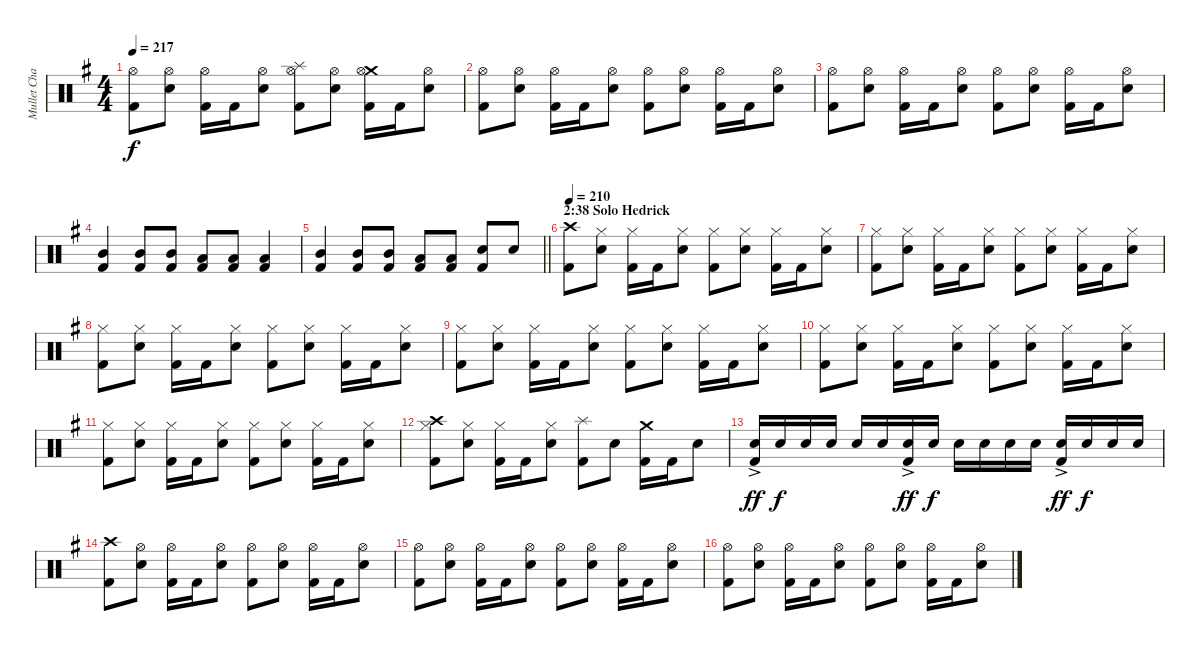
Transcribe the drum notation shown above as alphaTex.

\track ("Mullet Chad" "Mullet Cha") {instrument percussion}
\staff {score}
\articulation defaults
\ts (4 4)
\tempo 217
\clef neutral
\ks g
("Hi-Hat (open)" "Kick (hit) 2").8{dy f} ("Hi-Hat (open)" "Snare (hit) 2").8 ("Hi-Hat (open)" "Kick (hit) 2").16 "Kick (hit) 2".16 ("Hi-Hat (open)" "Snare (hit) 2").8 ("Splash (hit)" "Hi-Hat (open)" "Kick (hit) 2").8 ("Hi-Hat (open)" "Snare (hit) 2").8 ("Crash medium (hit)" "Hi-Hat (open)" "Kick (hit) 2").16 "Kick (hit) 2".16 ("Hi-Hat (open)" "Snare (hit) 2").8 |
("Hi-Hat (open)" "Kick (hit) 2").8 ("Hi-Hat (open)" "Snare (hit) 2").8 ("Hi-Hat (open)" "Kick (hit) 2").16 "Kick (hit) 2".16 ("Hi-Hat (open)" "Snare (hit) 2").8 ("Hi-Hat (open)" "Kick (hit) 2").8 ("Hi-Hat (open)" "Snare (hit) 2").8 ("Hi-Hat (open)" "Kick (hit) 2").16 "Kick (hit) 2".16 ("Hi-Hat (open)" "Snare (hit) 2").8 |
("Hi-Hat (open)" "Kick (hit) 2").8 ("Hi-Hat (open)" "Snare (hit) 2").8 ("Hi-Hat (open)" "Kick (hit) 2").16 "Kick (hit) 2".16 ("Hi-Hat (open)" "Snare (hit) 2").8 ("Hi-Hat (open)" "Kick (hit) 2").8 ("Hi-Hat (open)" "Snare (hit) 2").8 ("Hi-Hat (open)" "Kick (hit) 2").16 "Kick (hit) 2".16 ("Hi-Hat (open)" "Snare (hit) 2").8 |
("Mid Tom (hit)" "Kick (hit) 2").4 ("Mid Tom (hit)" "Kick (hit) 2").8 ("Mid Tom (hit)" "Kick (hit) 2").8 ("Low Tom (hit)" "Kick (hit) 2").8 ("Low Tom (hit)" "Kick (hit) 2").8 ("Low Tom (hit)" "Kick (hit) 2").4 |
\barLineRight lightlight
("Mid Tom (hit)" "Kick (hit) 2").4 ("Mid Tom (hit)" "Kick (hit) 2").8 ("Mid Tom (hit)" "Kick (hit) 2").8 ("Low Tom (hit)" "Kick (hit) 2").8 ("Low Tom (hit)" "Kick (hit) 2").8 ("Snare (hit) 2" "Kick (hit) 2").8 "Snare (hit) 2".8 |
\section ("" "2:38 Solo Hedrick")
\tempo 210
("Crash high (hit)" "Kick (hit) 2").8 ("Hi-Hat (closed)" "Snare (hit) 2").8 ("Hi-Hat (closed)" "Kick (hit) 2").16 "Kick (hit) 2".16 ("Hi-Hat (closed)" "Snare (hit) 2").8 ("Hi-Hat (closed)" "Kick (hit) 2").8 ("Hi-Hat (closed)" "Snare (hit) 2").8 ("Hi-Hat (closed)" "Kick (hit) 2").16 "Kick (hit) 2".16 ("Hi-Hat (closed)" "Snare (hit) 2").8 |
("Hi-Hat (closed)" "Kick (hit) 2").8 ("Hi-Hat (closed)" "Snare (hit) 2").8 ("Hi-Hat (closed)" "Kick (hit) 2").16 "Kick (hit) 2".16 ("Hi-Hat (closed)" "Snare (hit) 2").8 ("Hi-Hat (closed)" "Kick (hit) 2").8 ("Hi-Hat (closed)" "Snare (hit) 2").8 ("Hi-Hat (closed)" "Kick (hit) 2").16 "Kick (hit) 2".16 ("Hi-Hat (closed)" "Snare (hit) 2").8 |
("Hi-Hat (closed)" "Kick (hit) 2").8 ("Hi-Hat (closed)" "Snare (hit) 2").8 ("Hi-Hat (closed)" "Kick (hit) 2").16 "Kick (hit) 2".16 ("Hi-Hat (closed)" "Snare (hit) 2").8 ("Hi-Hat (closed)" "Kick (hit) 2").8 ("Hi-Hat (closed)" "Snare (hit) 2").8 ("Hi-Hat (closed)" "Kick (hit) 2").16 "Kick (hit) 2".16 ("Hi-Hat (closed)" "Snare (hit) 2").8 |
("Hi-Hat (closed)" "Kick (hit) 2").8 ("Hi-Hat (closed)" "Snare (hit) 2").8 ("Hi-Hat (closed)" "Kick (hit) 2").16 "Kick (hit) 2".16 ("Hi-Hat (closed)" "Snare (hit) 2").8 ("Hi-Hat (closed)" "Kick (hit) 2").8 ("Hi-Hat (closed)" "Snare (hit) 2").8 ("Hi-Hat (closed)" "Kick (hit) 2").16 "Kick (hit) 2".16 ("Hi-Hat (closed)" "Snare (hit) 2").8 |
("Hi-Hat (closed)" "Kick (hit) 2").8 ("Hi-Hat (closed)" "Snare (hit) 2").8 ("Hi-Hat (closed)" "Kick (hit) 2").16 "Kick (hit) 2".16 ("Hi-Hat (closed)" "Snare (hit) 2").8 ("Hi-Hat (closed)" "Kick (hit) 2").8 ("Hi-Hat (closed)" "Snare (hit) 2").8 ("Hi-Hat (closed)" "Kick (hit) 2").16 "Kick (hit) 2".16 ("Hi-Hat (closed)" "Snare (hit) 2").8 |
("Hi-Hat (closed)" "Kick (hit) 2").8 ("Hi-Hat (closed)" "Snare (hit) 2").8 ("Hi-Hat (closed)" "Kick (hit) 2").16 "Kick (hit) 2".16 ("Hi-Hat (closed)" "Snare (hit) 2").8 ("Hi-Hat (closed)" "Kick (hit) 2").8 ("Hi-Hat (closed)" "Snare (hit) 2").8 ("Hi-Hat (closed)" "Kick (hit) 2").16 "Kick (hit) 2".16 ("Hi-Hat (closed)" "Snare (hit) 2").8 |
("Crash high (hit)" "Hi-Hat (closed)" "Kick (hit) 2").8 ("Hi-Hat (closed)" "Snare (hit) 2").8 ("Hi-Hat (closed)" "Kick (hit) 2").16 "Kick (hit) 2".16 ("Hi-Hat (closed)" "Snare (hit) 2").8 ("Splash (hit)" "Kick (hit) 2").8 "Snare (hit) 2".8 ("Crash medium (hit)" "Kick (hit) 2").16 "Kick (hit) 2".16 "Snare (hit) 2".8 |
("Snare (hit) 2"{ac} "Kick (hit) 2").16{dy ff} "Snare (hit) 2".16{dy f} "Snare (hit) 2".16 "Snare (hit) 2".16 "Snare (hit) 2".16 "Snare (hit) 2".16 ("Snare (hit) 2"{ac} "Kick (hit) 2").16{dy ff} "Snare (hit) 2".16{dy f} "Snare (hit) 2".16 "Snare (hit) 2".16 "Snare (hit) 2".16 "Snare (hit) 2".16 ("Snare (hit) 2"{ac} "Kick (hit) 2").16{dy ff} "Snare (hit) 2".16{dy f} "Snare (hit) 2".16 "Snare (hit) 2".16 |
("Crash high (hit)" "Kick (hit) 2").8 ("Hi-Hat (open)" "Snare (hit) 2").8 ("Hi-Hat (open)" "Kick (hit) 2").16 "Kick (hit) 2".16 ("Hi-Hat (open)" "Snare (hit) 2").8 ("Hi-Hat (open)" "Kick (hit) 2").8 ("Hi-Hat (open)" "Snare (hit) 2").8 ("Hi-Hat (open)" "Kick (hit) 2").16 "Kick (hit) 2".16 ("Hi-Hat (open)" "Snare (hit) 2").8 |
("Hi-Hat (open)" "Kick (hit) 2").8 ("Hi-Hat (open)" "Snare (hit) 2").8 ("Hi-Hat (open)" "Kick (hit) 2").16 "Kick (hit) 2".16 ("Hi-Hat (open)" "Snare (hit) 2").8 ("Hi-Hat (open)" "Kick (hit) 2").8 ("Hi-Hat (open)" "Snare (hit) 2").8 ("Hi-Hat (open)" "Kick (hit) 2").16 "Kick (hit) 2".16 ("Hi-Hat (open)" "Snare (hit) 2").8 |
("Hi-Hat (open)" "Kick (hit) 2").8 ("Hi-Hat (open)" "Snare (hit) 2").8 ("Hi-Hat (open)" "Kick (hit) 2").16 "Kick (hit) 2".16 ("Hi-Hat (open)" "Snare (hit) 2").8 ("Hi-Hat (open)" "Kick (hit) 2").8 ("Hi-Hat (open)" "Snare (hit) 2").8 ("Hi-Hat (open)" "Kick (hit) 2").16 "Kick (hit) 2".16 ("Hi-Hat (open)" "Snare (hit) 2").8
